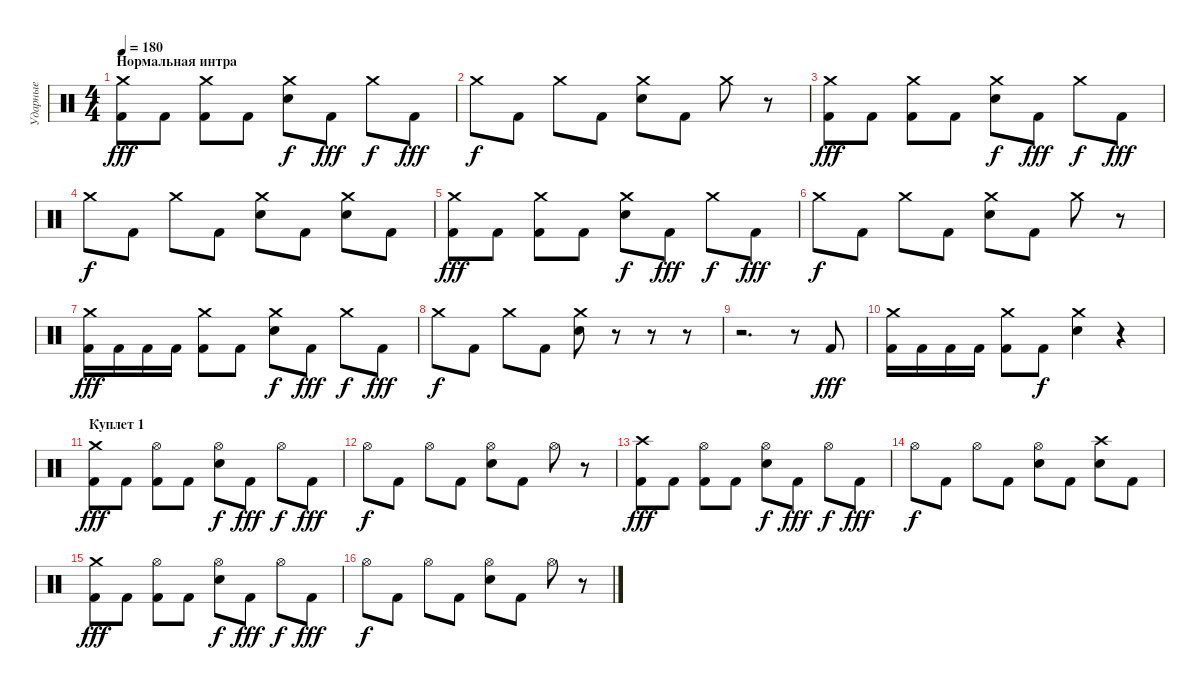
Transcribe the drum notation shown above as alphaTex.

\track ("Ударные" "Ударные") {instrument percussion}
\staff {score}
\articulation defaults
\ts (4 4)
\section ("" "Нормальная интра")
\tempo 180
\clef neutral
\ks c
("Kick (hit) 2" "Crash medium (hit)").8{dy fff} "Kick (hit) 2".8 ("Kick (hit) 2" "Crash medium (hit)").8 "Kick (hit) 2".8 ("Snare (hit) 2" "Crash medium (hit)").8{dy f} "Kick (hit) 2".8{dy fff} "Crash medium (hit)".8{dy f} "Kick (hit) 2".8{dy fff} |
"Crash medium (hit)".8{dy f} "Kick (hit) 2".8 "Crash medium (hit)".8 "Kick (hit) 2".8 ("Snare (hit) 2" "Crash medium (hit)").8 "Kick (hit) 2".8 "Crash medium (hit)".8 r.8 |
("Kick (hit) 2" "Crash medium (hit)").8{dy fff} "Kick (hit) 2".8 ("Kick (hit) 2" "Crash medium (hit)").8 "Kick (hit) 2".8 ("Snare (hit) 2" "Crash medium (hit)").8{dy f} "Kick (hit) 2".8{dy fff} "Crash medium (hit)".8{dy f} "Kick (hit) 2".8{dy fff} |
"Crash medium (hit)".8{dy f} "Kick (hit) 2".8 "Crash medium (hit)".8 "Kick (hit) 2".8 ("Snare (hit) 2" "Crash medium (hit)").8 "Kick (hit) 2".8 ("Snare (hit) 2" "Crash medium (hit)").8 "Kick (hit) 2".8 |
("Kick (hit) 2" "Crash medium (hit)").8{dy fff} "Kick (hit) 2".8 ("Kick (hit) 2" "Crash medium (hit)").8 "Kick (hit) 2".8 ("Snare (hit) 2" "Crash medium (hit)").8{dy f} "Kick (hit) 2".8{dy fff} "Crash medium (hit)".8{dy f} "Kick (hit) 2".8{dy fff} |
"Crash medium (hit)".8{dy f} "Kick (hit) 2".8 "Crash medium (hit)".8 "Kick (hit) 2".8 ("Snare (hit) 2" "Crash medium (hit)").8 "Kick (hit) 2".8 "Crash medium (hit)".8 r.8 |
("Kick (hit) 2" "Crash medium (hit)").16{dy fff} "Kick (hit) 2".16 "Kick (hit) 2".16 "Kick (hit) 2".16 ("Kick (hit) 2" "Crash medium (hit)").8 "Kick (hit) 2".8 ("Snare (hit) 2" "Crash medium (hit)").8{dy f} "Kick (hit) 2".8{dy fff} "Crash medium (hit)".8{dy f} "Kick (hit) 2".8{dy fff} |
"Crash medium (hit)".8{dy f} "Kick (hit) 2".8 "Crash medium (hit)".8 "Kick (hit) 2".8 ("Snare (hit) 2" "Crash medium (hit)").8 r.8 r.8 r.8 |
r.2{d} r.8 "Kick (hit) 2".8{dy fff} |
("Kick (hit) 2" "Crash medium (hit)").16 "Kick (hit) 2".16 "Kick (hit) 2".16 "Kick (hit) 2".16 ("Kick (hit) 2" "Crash medium (hit)").8 "Kick (hit) 2".8{dy f} ("Snare (hit) 2" "Crash medium (hit)").4 r.4 |
\section ("" "Куплет 1")
("Kick (hit) 2" "Crash medium (hit)").8{dy fff} "Kick (hit) 2".8 ("Kick (hit) 2" "Hi-Hat (open)").8 "Kick (hit) 2".8 ("Snare (hit) 2" "Hi-Hat (open)").8{dy f} "Kick (hit) 2".8{dy fff} "Hi-Hat (open)".8{dy f} "Kick (hit) 2".8{dy fff} |
"Hi-Hat (open)".8{dy f} "Kick (hit) 2".8 "Hi-Hat (open)".8 "Kick (hit) 2".8 ("Snare (hit) 2" "Hi-Hat (open)").8 "Kick (hit) 2".8 "Hi-Hat (open)".8 r.8 |
("Kick (hit) 2" "Crash high (hit)").8{dy fff} "Kick (hit) 2".8 ("Kick (hit) 2" "Hi-Hat (open)").8 "Kick (hit) 2".8 ("Snare (hit) 2" "Hi-Hat (open)").8{dy f} "Kick (hit) 2".8{dy fff} "Hi-Hat (open)".8{dy f} "Kick (hit) 2".8{dy fff} |
"Hi-Hat (open)".8{dy f} "Kick (hit) 2".8 "Hi-Hat (open)".8 "Kick (hit) 2".8 ("Snare (hit) 2" "Hi-Hat (open)").8 "Kick (hit) 2".8 ("Snare (hit) 2" "Crash high (hit)").8 "Kick (hit) 2".8 |
("Kick (hit) 2" "Crash medium (hit)").8{dy fff} "Kick (hit) 2".8 ("Kick (hit) 2" "Hi-Hat (open)").8 "Kick (hit) 2".8 ("Snare (hit) 2" "Hi-Hat (open)").8{dy f} "Kick (hit) 2".8{dy fff} "Hi-Hat (open)".8{dy f} "Kick (hit) 2".8{dy fff} |
"Hi-Hat (open)".8{dy f} "Kick (hit) 2".8 "Hi-Hat (open)".8 "Kick (hit) 2".8 ("Snare (hit) 2" "Hi-Hat (open)").8 "Kick (hit) 2".8 "Hi-Hat (open)".8 r.8
